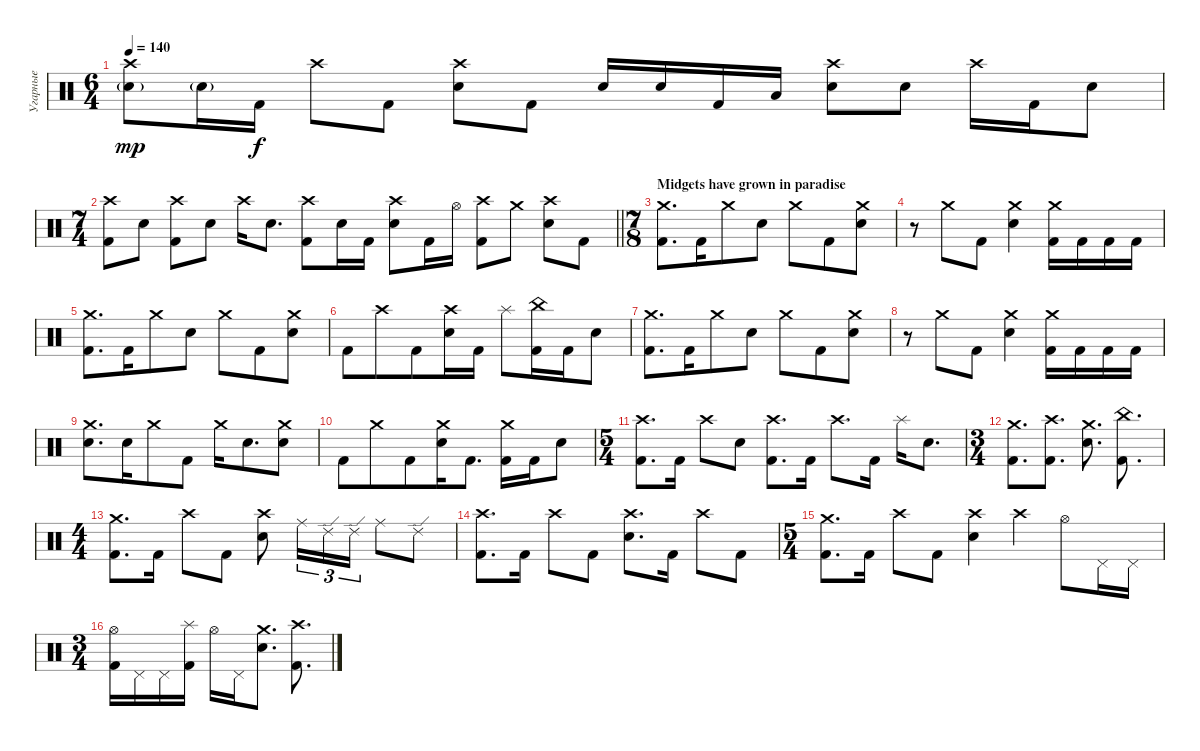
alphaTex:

\track ("Угарные" "Угарные") {instrument percussion}
\staff {score}
\articulation defaults
\ts (6 4)
\tempo 140
\clef neutral
\ks c
("Electric Snare (hit)"{g} "Crash high (hit)").8{dy mp} "Electric Snare (hit)"{g}.16 "Kick (hit) 2".16{dy f} "Crash high (hit)".8 "Kick (hit) 2".8 ("Electric Snare (hit)" "Crash high (hit)").8 "Kick (hit) 2".8 "Electric Snare (hit)".16 "Electric Snare (hit)".16 "Kick (hit) 2".16 "Low Floor Tom (hit)".16 ("Electric Snare (hit)" "Crash high (hit)").8 "Electric Snare (hit)".8 "Crash high (hit)".16 "Kick (hit) 2".16 "Electric Snare (hit)".8 |
\ts (7 4)
\barLineRight lightlight
("Kick (hit) 2" "Crash high (hit)").8 "Electric Snare (hit)".8 ("Kick (hit) 2" "Crash high (hit)").8 "Electric Snare (hit)".8 "Crash high (hit)".16 "Electric Snare (hit)".8{d} ("Kick (hit) 2" "Crash high (hit)").8 "Electric Snare (hit)".16 "Kick (hit) 2".16 ("Electric Snare (hit)" "Crash high (hit)").8 "Kick (hit) 2".16 "Hi-Hat (open)".16 ("Crash high (hit)" "Kick (hit) 2").8 "Crash medium (hit)".8 ("Crash high (hit)" "Electric Snare (hit)").8 "Kick (hit) 2".8 |
\ts (7 8)
\section ("" "Midgets have grown in paradise")
("Kick (hit) 2" "Crash medium (hit)").8{d} "Kick (hit) 2".16 "Crash medium (hit)".8 "Electric Snare (hit)".8 "Crash medium (hit)".8 "Kick (hit) 2".8 ("Electric Snare (hit)" "Crash medium (hit)").8 |
r.8 "Crash medium (hit)".8 "Kick (hit) 2".8 ("Electric Snare (hit)" "Crash medium (hit)").4 ("Kick (hit) 2" "Crash medium (hit)").16 "Kick (hit) 2".16 "Kick (hit) 2".16 "Kick (hit) 2".16 |
("Kick (hit) 2" "Crash medium (hit)").8{d} "Kick (hit) 2".16 "Crash medium (hit)".8 "Electric Snare (hit)".8 "Crash medium (hit)".8 "Kick (hit) 2".8 ("Electric Snare (hit)" "Crash medium (hit)").8 |
"Kick (hit) 2".8 "Crash high (hit)".8 "Kick (hit) 2".8 ("Electric Snare (hit)" "Crash high (hit)").16 "Kick (hit) 2".16 "Splash (hit)".8 ("Kick (hit) 2" "China (hit)").16 "Kick (hit) 2".16 "Electric Snare (hit)".8 |
("Kick (hit) 2" "Crash medium (hit)").8{d} "Kick (hit) 2".16 "Crash medium (hit)".8 "Electric Snare (hit)".8 "Crash medium (hit)".8 "Kick (hit) 2".8 ("Electric Snare (hit)" "Crash medium (hit)").8 |
r.8 "Crash medium (hit)".8 "Kick (hit) 2".8 ("Electric Snare (hit)" "Crash medium (hit)").4 ("Kick (hit) 2" "Crash medium (hit)").16 "Kick (hit) 2".16 "Kick (hit) 2".16 "Kick (hit) 2".16 |
("Electric Snare (hit)" "Crash medium (hit)").8{d} "Electric Snare (hit)".16 "Crash medium (hit)".8 "Kick (hit) 2".8 "Crash medium (hit)".16 "Electric Snare (hit)".8{d} ("Electric Snare (hit)" "Crash medium (hit)").8 |
"Kick (hit) 2".8 "Crash medium (hit)".8 "Kick (hit) 2".8 ("Electric Snare (hit)" "Crash medium (hit)").16 "Kick (hit) 2".8{d} ("Kick (hit) 2" "Crash medium (hit)").16 "Kick (hit) 2".16 "Electric Snare (hit)".8 |
\ts (5 4)
("Kick (hit) 2" "Crash high (hit)").8{d} "Kick (hit) 2".16 "Crash high (hit)".8 "Electric Snare (hit)".8 ("Kick (hit) 2" "Crash high (hit)").8{d} "Kick (hit) 2".16 "Crash high (hit)".8{d} "Kick (hit) 2".16 "Splash (hit)".16 "Electric Snare (hit)".8{d} |
\ts (3 4)
("Kick (hit) 2" "Crash medium (hit)").8{d} ("Kick (hit) 2" "Crash high (hit)").8{d} ("Electric Snare (hit)" "Crash medium (hit)").8{d} ("Kick (hit) 2" "China (hit)").8{d} |
\ts (4 4)
("Kick (hit) 2" "Crash medium (hit)").8{d} "Kick (hit) 2".16 "Crash high (hit)".8 "Kick (hit) 2".8 ("Electric Snare (hit)" "Crash high (hit)").8 "Ride (middle)".16{tu (3 2)} "Ride (edge) 2".16{tu (3 2)} "Ride (edge) 2".16{tu (3 2)} "Ride (middle)".8 "Ride (edge) 2".8 |
("Kick (hit) 2" "Crash high (hit)").8{d} "Kick (hit) 2".16 "Crash high (hit)".8 "Kick (hit) 2".8 ("Electric Snare (hit)" "Crash high (hit)").8{d} "Kick (hit) 2".16 "Crash high (hit)".8 "Kick (hit) 2".8 |
\ts (5 4)
("Kick (hit) 2" "Crash medium (hit)").8{d} "Kick (hit) 2".16 "Crash high (hit)".8 "Kick (hit) 2".8 ("Electric Snare (hit)" "Crash high (hit)").4 "Crash high (hit)".4 "Hi-Hat (open)".8 "Pedal Hi-Hat (hit)".16 "Pedal Hi-Hat (hit)".16 |
\ts (3 4)
("Kick (hit) 2" "Hi-Hat (open)").16 "Pedal Hi-Hat (hit)".16 "Pedal Hi-Hat (hit)".16 ("Kick (hit) 2" "Splash (hit)").16 "Hi-Hat (open)".16 "Pedal Hi-Hat (hit)".16 ("Electric Snare (hit)" "Crash medium (hit)").8{d} ("Kick (hit) 2" "Crash high (hit)").8{d}
